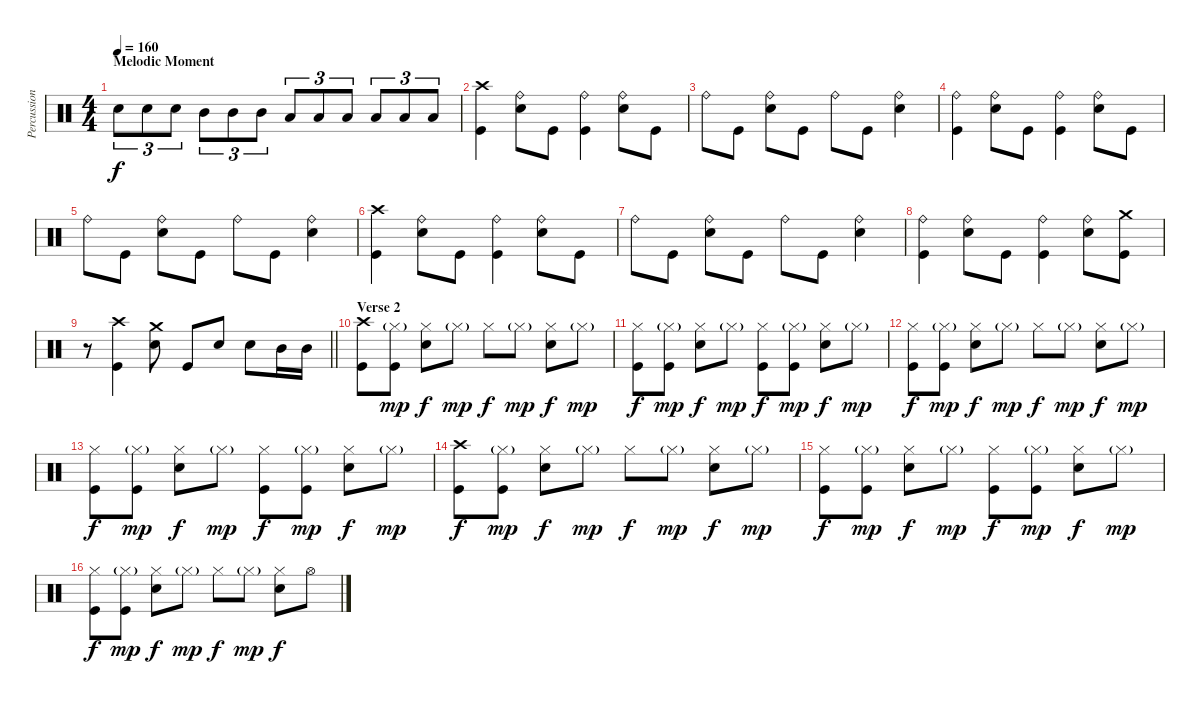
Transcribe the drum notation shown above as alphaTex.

\track ("Percussions" "Percussion") {instrument percussion}
\staff {score}
\articulation defaults
\ts (4 4)
\section ("" "Melodic Moment")
\tempo 160
\clef neutral
\ks c "Snare (hit) 2".8{tu (3 2) dy f} "Snare (hit) 2".8{tu (3 2)} "Snare (hit) 2".8{tu (3 2)} "Mid Tom (hit)".8{tu (3 2)} "Mid Tom (hit)".8{tu (3 2)} "Mid Tom (hit)".8{tu (3 2)} "Low Tom (hit)".8{tu (3 2)} "Low Tom (hit)".8{tu (3 2)} "Low Tom (hit)".8{tu (3 2)} "Low Floor Tom (hit)".8{tu (3 2)} "Low Floor Tom (hit)".8{tu (3 2)} "Low Floor Tom (hit)".8{tu (3 2)}
|
("Kick (hit)" "Crash high (hit)").4 ("Snare (hit) 2" "Ride (bell)").8 "Kick (hit)".8 ("Kick (hit)" "Ride (bell)").4 ("Snare (hit) 2" "Ride (bell)").8 "Kick (hit)".8 |
"Ride (bell)".8 "Kick (hit)".8 ("Snare (hit) 2" "Ride (bell)").8 "Kick (hit)".8 "Ride (bell)".8 "Kick (hit)".8 ("Snare (hit) 2" "Ride (bell)").4 |
("Kick (hit)" "Ride (bell)").4 ("Snare (hit) 2" "Ride (bell)").8 "Kick (hit)".8 ("Kick (hit)" "Ride (bell)").4 ("Snare (hit) 2" "Ride (bell)").8 "Kick (hit)".8 |
"Ride (bell)".8 "Kick (hit)".8 ("Snare (hit) 2" "Ride (bell)").8 "Kick (hit)".8 "Ride (bell)".8 "Kick (hit)".8 ("Snare (hit) 2" "Ride (bell)").4 |
("Kick (hit)" "Crash high (hit)").4 ("Snare (hit) 2" "Ride (bell)").8 "Kick (hit)".8 ("Kick (hit)" "Ride (bell)").4 ("Snare (hit) 2" "Ride (bell)").8 "Kick (hit)".8 |
"Ride (bell)".8 "Kick (hit)".8 ("Snare (hit) 2" "Ride (bell)").8 "Kick (hit)".8 "Ride (bell)".8 "Kick (hit)".8 ("Snare (hit) 2" "Ride (bell)").4 |
("Kick (hit)" "Ride (bell)").4 ("Snare (hit) 2" "Ride (bell)").8 "Kick (hit)".8 ("Kick (hit)" "Ride (bell)").4 ("Snare (hit) 2" "Ride (bell)").8 ("Kick (hit)" "Crash medium (hit)").8 |
\barLineRight lightlight
r.8 ("Kick (hit)" "Crash high (hit)").4 ("Snare (hit) 2" "Crash medium (hit)").8 "Kick (hit)".8 "Snare (hit) 2".8 "Snare (hit) 2".8 "Mid Tom (hit)".16 "Mid Tom (hit)".16 |
\section ("" "Verse 2")
("Kick (hit)" "Crash high (hit)").8 ("Kick (hit)" "Hi-Hat (closed)"{g}).8{dy mp} ("Snare (hit) 2" "Hi-Hat (closed)").8{dy f} "Hi-Hat (closed)"{g}.8{dy mp} "Hi-Hat (closed)".8{dy f} "Hi-Hat (closed)"{g}.8{dy mp} ("Snare (hit) 2" "Hi-Hat (closed)").8{dy f} "Hi-Hat (closed)"{g}.8{dy mp} |
("Kick (hit)" "Hi-Hat (closed)").8{dy f} ("Kick (hit)" "Hi-Hat (closed)"{g}).8{dy mp} ("Snare (hit) 2" "Hi-Hat (closed)").8{dy f} "Hi-Hat (closed)"{g}.8{dy mp} ("Kick (hit)" "Hi-Hat (closed)").8{dy f} ("Kick (hit)" "Hi-Hat (closed)"{g}).8{dy mp} ("Snare (hit) 2" "Hi-Hat (closed)").8{dy f} "Hi-Hat (closed)"{g}.8{dy mp} |
("Kick (hit)" "Hi-Hat (closed)").8{dy f} ("Kick (hit)" "Hi-Hat (closed)"{g}).8{dy mp} ("Snare (hit) 2" "Hi-Hat (closed)").8{dy f} "Hi-Hat (closed)"{g}.8{dy mp} "Hi-Hat (closed)".8{dy f} "Hi-Hat (closed)"{g}.8{dy mp} ("Snare (hit) 2" "Hi-Hat (closed)").8{dy f} "Hi-Hat (closed)"{g}.8{dy mp} |
("Kick (hit)" "Hi-Hat (closed)").8{dy f} ("Kick (hit)" "Hi-Hat (closed)"{g}).8{dy mp} ("Snare (hit) 2" "Hi-Hat (closed)").8{dy f} "Hi-Hat (closed)"{g}.8{dy mp} ("Kick (hit)" "Hi-Hat (closed)").8{dy f} ("Kick (hit)" "Hi-Hat (closed)"{g}).8{dy mp} ("Snare (hit) 2" "Hi-Hat (closed)").8{dy f} "Hi-Hat (closed)"{g}.8{dy mp} |
("Kick (hit)" "Crash high (hit)").8{dy f} ("Kick (hit)" "Hi-Hat (closed)"{g}).8{dy mp} ("Snare (hit) 2" "Hi-Hat (closed)").8{dy f} "Hi-Hat (closed)"{g}.8{dy mp} "Hi-Hat (closed)".8{dy f} "Hi-Hat (closed)"{g}.8{dy mp} ("Snare (hit) 2" "Hi-Hat (closed)").8{dy f} "Hi-Hat (closed)"{g}.8{dy mp} |
("Kick (hit)" "Hi-Hat (closed)").8{dy f} ("Kick (hit)" "Hi-Hat (closed)"{g}).8{dy mp} ("Snare (hit) 2" "Hi-Hat (closed)").8{dy f} "Hi-Hat (closed)"{g}.8{dy mp} ("Kick (hit)" "Hi-Hat (closed)").8{dy f} ("Kick (hit)" "Hi-Hat (closed)"{g}).8{dy mp} ("Snare (hit) 2" "Hi-Hat (closed)").8{dy f} "Hi-Hat (closed)"{g}.8{dy mp} |
("Kick (hit)" "Hi-Hat (closed)").8{dy f} ("Kick (hit)" "Hi-Hat (closed)"{g}).8{dy mp} ("Snare (hit) 2" "Hi-Hat (closed)").8{dy f} "Hi-Hat (closed)"{g}.8{dy mp} "Hi-Hat (closed)".8{dy f} "Hi-Hat (closed)"{g}.8{dy mp} ("Snare (hit) 2" "Hi-Hat (closed)").8{dy f} "Hi-Hat (open)".8
